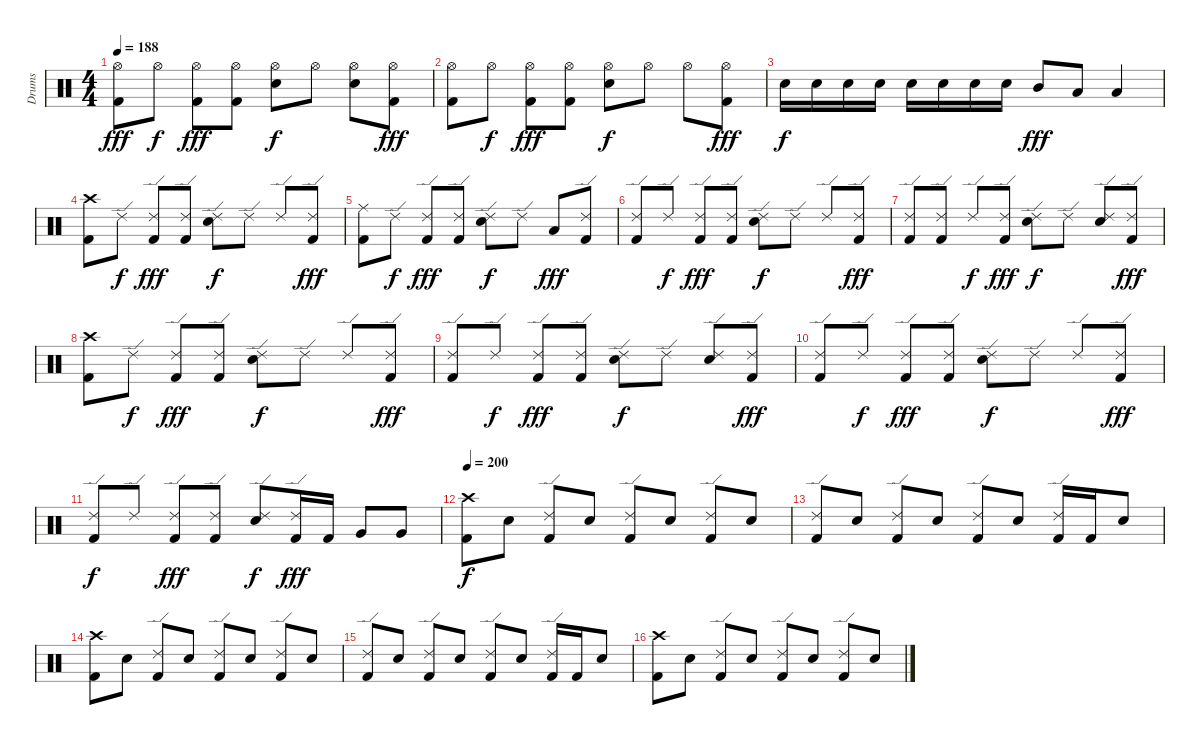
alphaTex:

\track ("Drums" "Drums") {instrument percussion}
\staff {score}
\articulation defaults
\ts (4 4)
\tempo 188
\clef neutral
\ks c
("Hi-Hat (open)" "Kick (hit) 2").8{dy fff} "Hi-Hat (open)".8{dy f} ("Hi-Hat (open)" "Kick (hit) 2").8{dy fff} ("Hi-Hat (open)" "Kick (hit) 2").8 ("Hi-Hat (open)" "Electric Snare (hit)").8{dy f} "Hi-Hat (open)".8 ("Hi-Hat (open)" "Electric Snare (hit)").8 ("Hi-Hat (open)" "Kick (hit) 2").8{dy fff} |
("Hi-Hat (open)" "Kick (hit) 2").8 "Hi-Hat (open)".8{dy f} ("Hi-Hat (open)" "Kick (hit) 2").8{dy fff} ("Hi-Hat (open)" "Kick (hit) 2").8 ("Hi-Hat (open)" "Electric Snare (hit)").8{dy f} "Hi-Hat (open)".8 "Hi-Hat (open)".8 ("Hi-Hat (open)" "Kick (hit) 2").8{dy fff} |
"Electric Snare (hit)".16{dy f} "Electric Snare (hit)".16 "Electric Snare (hit)".16 "Electric Snare (hit)".16 "Electric Snare (hit)".16 "Electric Snare (hit)".16 "Electric Snare (hit)".16 "Electric Snare (hit)".16 "Mid Tom (hit)".8{dy fff} "Low Tom (hit)".8 "Low Tom (hit)".4 |
("Crash high (hit)" "Kick (hit) 2").8 "Ride (edge) 2".8{dy f} ("Ride (edge) 2" "Kick (hit) 2").8{dy fff} ("Ride (edge) 2" "Kick (hit) 2").8 ("Ride (edge) 2" "Electric Snare (hit)").8{dy f} "Ride (edge) 2".8 "Ride (edge) 2".8 ("Ride (edge) 2" "Kick (hit) 2").8{dy fff} |
("Ride (middle)" "Kick (hit) 2").8 "Ride (edge) 2".8{dy f} ("Ride (edge) 2" "Kick (hit) 2").8{dy fff} ("Ride (edge) 2" "Kick (hit) 2").8 ("Ride (edge) 2" "Electric Snare (hit)").8{dy f} "Ride (edge) 2".8 "Low Tom (hit)".8{dy fff} ("Ride (edge) 2" "Kick (hit) 2").8 |
("Ride (edge) 2" "Kick (hit) 2").8 "Ride (edge) 2".8{dy f} ("Ride (edge) 2" "Kick (hit) 2").8{dy fff} ("Ride (edge) 2" "Kick (hit) 2").8 ("Ride (edge) 2" "Electric Snare (hit)").8{dy f} "Ride (edge) 2".8 "Ride (edge) 2".8 ("Ride (edge) 2" "Kick (hit) 2").8{dy fff} |
("Ride (edge) 2" "Kick (hit) 2").8 ("Ride (edge) 2" "Kick (hit) 2").8 "Ride (edge) 2".8{dy f} ("Ride (edge) 2" "Kick (hit) 2").8{dy fff} ("Ride (edge) 2" "Electric Snare (hit)").8{dy f} "Ride (edge) 2".8 ("Ride (edge) 2" "Electric Snare (hit)").8 ("Ride (edge) 2" "Kick (hit) 2").8{dy fff} |
("Crash high (hit)" "Kick (hit) 2").8 "Ride (edge) 2".8{dy f} ("Ride (edge) 2" "Kick (hit) 2").8{dy fff} ("Ride (edge) 2" "Kick (hit) 2").8 ("Ride (edge) 2" "Electric Snare (hit)").8{dy f} "Ride (edge) 2".8 "Ride (edge) 2".8 ("Ride (edge) 2" "Kick (hit) 2").8{dy fff} |
("Ride (edge) 2" "Kick (hit) 2").8 "Ride (edge) 2".8{dy f} ("Ride (edge) 2" "Kick (hit) 2").8{dy fff} ("Ride (edge) 2" "Kick (hit) 2").8 ("Ride (edge) 2" "Electric Snare (hit)").8{dy f} "Ride (edge) 2".8 ("Ride (edge) 2" "Electric Snare (hit)").8 ("Ride (edge) 2" "Kick (hit) 2").8{dy fff} |
("Ride (edge) 2" "Kick (hit) 2").8 "Ride (edge) 2".8{dy f} ("Ride (edge) 2" "Kick (hit) 2").8{dy fff} ("Ride (edge) 2" "Kick (hit) 2").8 ("Ride (edge) 2" "Electric Snare (hit)").8{dy f} "Ride (edge) 2".8 "Ride (edge) 2".8 ("Ride (edge) 2" "Kick (hit) 2").8{dy fff} |
("Ride (edge) 2" "Kick (hit) 2").8{dy f} "Ride (edge) 2".8 ("Ride (edge) 2" "Kick (hit) 2").8{dy fff} ("Ride (edge) 2" "Kick (hit) 2").8 ("Ride (edge) 2" "Electric Snare (hit)").8{dy f} ("Ride (edge) 2" "Kick (hit) 2").16{dy fff} "Kick (hit) 2".16 "Very Low Tom (hit)".8 "Very Low Tom (hit)".8 |
\tempo 200
("Crash high (hit)" "Kick (hit) 2").8{dy f} "Electric Snare (hit)".8 ("Ride (edge) 2" "Kick (hit) 2").8 "Electric Snare (hit)".8 ("Ride (edge) 2" "Kick (hit) 2").8 "Electric Snare (hit)".8 ("Ride (edge) 2" "Kick (hit) 2").8 "Electric Snare (hit)".8 |
("Ride (edge) 2" "Kick (hit) 2").8 "Electric Snare (hit)".8 ("Ride (edge) 2" "Kick (hit) 2").8 "Electric Snare (hit)".8 ("Ride (edge) 2" "Kick (hit) 2").8 "Electric Snare (hit)".8 ("Ride (edge) 2" "Kick (hit) 2").16 "Kick (hit) 2".16 "Electric Snare (hit)".8 |
("Crash high (hit)" "Kick (hit) 2").8 "Electric Snare (hit)".8 ("Ride (edge) 2" "Kick (hit) 2").8 "Electric Snare (hit)".8 ("Ride (edge) 2" "Kick (hit) 2").8 "Electric Snare (hit)".8 ("Ride (edge) 2" "Kick (hit) 2").8 "Electric Snare (hit)".8 |
("Ride (edge) 2" "Kick (hit) 2").8 "Electric Snare (hit)".8 ("Ride (edge) 2" "Kick (hit) 2").8 "Electric Snare (hit)".8 ("Ride (edge) 2" "Kick (hit) 2").8 "Electric Snare (hit)".8 ("Ride (edge) 2" "Kick (hit) 2").16 "Kick (hit) 2".16 "Electric Snare (hit)".8 |
("Crash high (hit)" "Kick (hit) 2").8 "Electric Snare (hit)".8 ("Ride (edge) 2" "Kick (hit) 2").8 "Electric Snare (hit)".8 ("Ride (edge) 2" "Kick (hit) 2").8 "Electric Snare (hit)".8 ("Ride (edge) 2" "Kick (hit) 2").8 "Electric Snare (hit)".8
